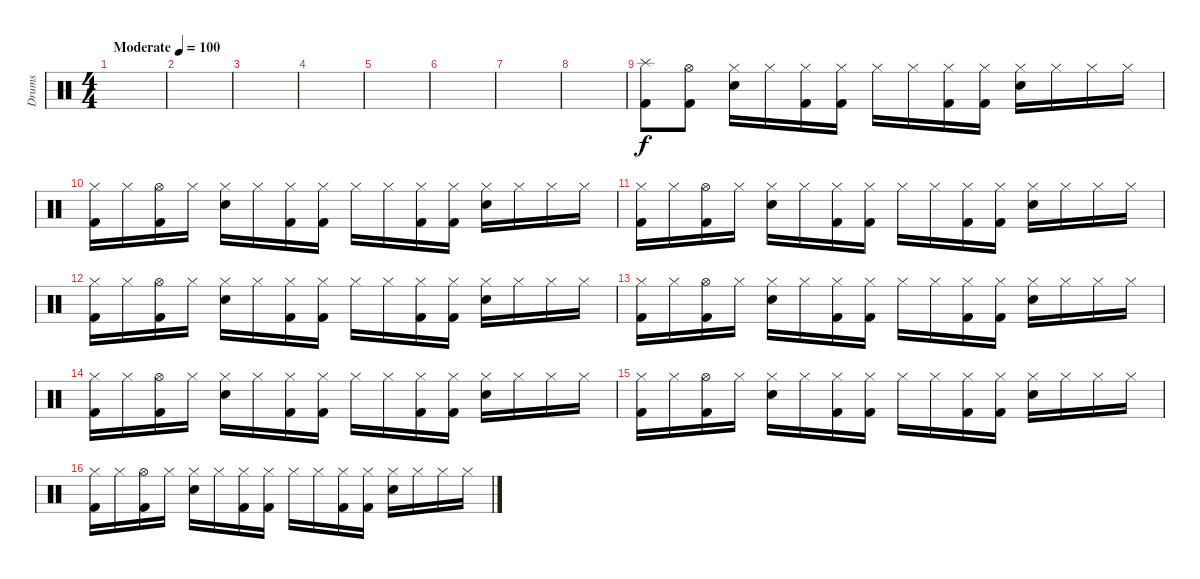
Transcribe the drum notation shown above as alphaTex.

\track ("Drums" "Drums") {instrument percussion}
\staff {score}
\articulation defaults
\ts (4 4)
\tempo (100 "Moderate")
\clef neutral
\ks c
|
|
|
|
|
|
|
|
("Splash (hit)" "Kick (hit) 2").8 ("Hi-Hat (open)" "Kick (hit) 2").8 ("Hi-Hat (closed)" "Snare (hit) 2").16 "Hi-Hat (closed)".16 ("Hi-Hat (closed)" "Kick (hit) 2").16 ("Hi-Hat (closed)" "Kick (hit) 2").16 "Hi-Hat (closed)".16 "Hi-Hat (closed)".16 ("Hi-Hat (closed)" "Kick (hit) 2").16 ("Hi-Hat (closed)" "Kick (hit) 2").16 ("Hi-Hat (closed)" "Snare (hit) 2").16 "Hi-Hat (closed)".16 "Hi-Hat (closed)".16 "Hi-Hat (closed)".16 |
("Hi-Hat (closed)" "Kick (hit) 2").16 "Hi-Hat (closed)".16 ("Hi-Hat (open)" "Kick (hit) 2").16 "Hi-Hat (closed)".16 ("Hi-Hat (closed)" "Snare (hit) 2").16 "Hi-Hat (closed)".16 ("Hi-Hat (closed)" "Kick (hit) 2").16 ("Hi-Hat (closed)" "Kick (hit) 2").16 "Hi-Hat (closed)".16 "Hi-Hat (closed)".16 ("Hi-Hat (closed)" "Kick (hit) 2").16 ("Hi-Hat (closed)" "Kick (hit) 2").16 ("Hi-Hat (closed)" "Snare (hit) 2").16 "Hi-Hat (closed)".16 "Hi-Hat (closed)".16 "Hi-Hat (closed)".16 |
("Hi-Hat (closed)" "Kick (hit) 2").16 "Hi-Hat (closed)".16 ("Hi-Hat (open)" "Kick (hit) 2").16 "Hi-Hat (closed)".16 ("Hi-Hat (closed)" "Snare (hit) 2").16 "Hi-Hat (closed)".16 ("Hi-Hat (closed)" "Kick (hit) 2").16 ("Hi-Hat (closed)" "Kick (hit) 2").16 "Hi-Hat (closed)".16 "Hi-Hat (closed)".16 ("Hi-Hat (closed)" "Kick (hit) 2").16 ("Hi-Hat (closed)" "Kick (hit) 2").16 ("Hi-Hat (closed)" "Snare (hit) 2").16 "Hi-Hat (closed)".16 "Hi-Hat (closed)".16 "Hi-Hat (closed)".16 |
("Hi-Hat (closed)" "Kick (hit) 2").16 "Hi-Hat (closed)".16 ("Hi-Hat (open)" "Kick (hit) 2").16 "Hi-Hat (closed)".16 ("Hi-Hat (closed)" "Snare (hit) 2").16 "Hi-Hat (closed)".16 ("Hi-Hat (closed)" "Kick (hit) 2").16 ("Hi-Hat (closed)" "Kick (hit) 2").16 "Hi-Hat (closed)".16 "Hi-Hat (closed)".16 ("Hi-Hat (closed)" "Kick (hit) 2").16 ("Hi-Hat (closed)" "Kick (hit) 2").16 ("Hi-Hat (closed)" "Snare (hit) 2").16 "Hi-Hat (closed)".16 "Hi-Hat (closed)".16 "Hi-Hat (closed)".16 |
("Hi-Hat (closed)" "Kick (hit) 2").16 "Hi-Hat (closed)".16 ("Hi-Hat (open)" "Kick (hit) 2").16 "Hi-Hat (closed)".16 ("Hi-Hat (closed)" "Snare (hit) 2").16 "Hi-Hat (closed)".16 ("Hi-Hat (closed)" "Kick (hit) 2").16 ("Hi-Hat (closed)" "Kick (hit) 2").16 "Hi-Hat (closed)".16 "Hi-Hat (closed)".16 ("Hi-Hat (closed)" "Kick (hit) 2").16 ("Hi-Hat (closed)" "Kick (hit) 2").16 ("Hi-Hat (closed)" "Snare (hit) 2").16 "Hi-Hat (closed)".16 "Hi-Hat (closed)".16 "Hi-Hat (closed)".16 |
("Hi-Hat (closed)" "Kick (hit) 2").16 "Hi-Hat (closed)".16 ("Hi-Hat (open)" "Kick (hit) 2").16 "Hi-Hat (closed)".16 ("Hi-Hat (closed)" "Snare (hit) 2").16 "Hi-Hat (closed)".16 ("Hi-Hat (closed)" "Kick (hit) 2").16 ("Hi-Hat (closed)" "Kick (hit) 2").16 "Hi-Hat (closed)".16 "Hi-Hat (closed)".16 ("Hi-Hat (closed)" "Kick (hit) 2").16 ("Hi-Hat (closed)" "Kick (hit) 2").16 ("Hi-Hat (closed)" "Snare (hit) 2").16 "Hi-Hat (closed)".16 "Hi-Hat (closed)".16 "Hi-Hat (closed)".16 |
("Hi-Hat (closed)" "Kick (hit) 2").16 "Hi-Hat (closed)".16 ("Hi-Hat (open)" "Kick (hit) 2").16 "Hi-Hat (closed)".16 ("Hi-Hat (closed)" "Snare (hit) 2").16 "Hi-Hat (closed)".16 ("Hi-Hat (closed)" "Kick (hit) 2").16 ("Hi-Hat (closed)" "Kick (hit) 2").16 "Hi-Hat (closed)".16 "Hi-Hat (closed)".16 ("Hi-Hat (closed)" "Kick (hit) 2").16 ("Hi-Hat (closed)" "Kick (hit) 2").16 ("Hi-Hat (closed)" "Snare (hit) 2").16 "Hi-Hat (closed)".16 "Hi-Hat (closed)".16 "Hi-Hat (closed)".16 |
("Hi-Hat (closed)" "Kick (hit) 2").16 "Hi-Hat (closed)".16 ("Hi-Hat (open)" "Kick (hit) 2").16 "Hi-Hat (closed)".16 ("Hi-Hat (closed)" "Snare (hit) 2").16 "Hi-Hat (closed)".16 ("Hi-Hat (closed)" "Kick (hit) 2").16 ("Hi-Hat (closed)" "Kick (hit) 2").16 "Hi-Hat (closed)".16 "Hi-Hat (closed)".16 ("Hi-Hat (closed)" "Kick (hit) 2").16 ("Hi-Hat (closed)" "Kick (hit) 2").16 ("Hi-Hat (closed)" "Snare (hit) 2").16 "Hi-Hat (closed)".16 "Hi-Hat (closed)".16 "Hi-Hat (closed)".16
